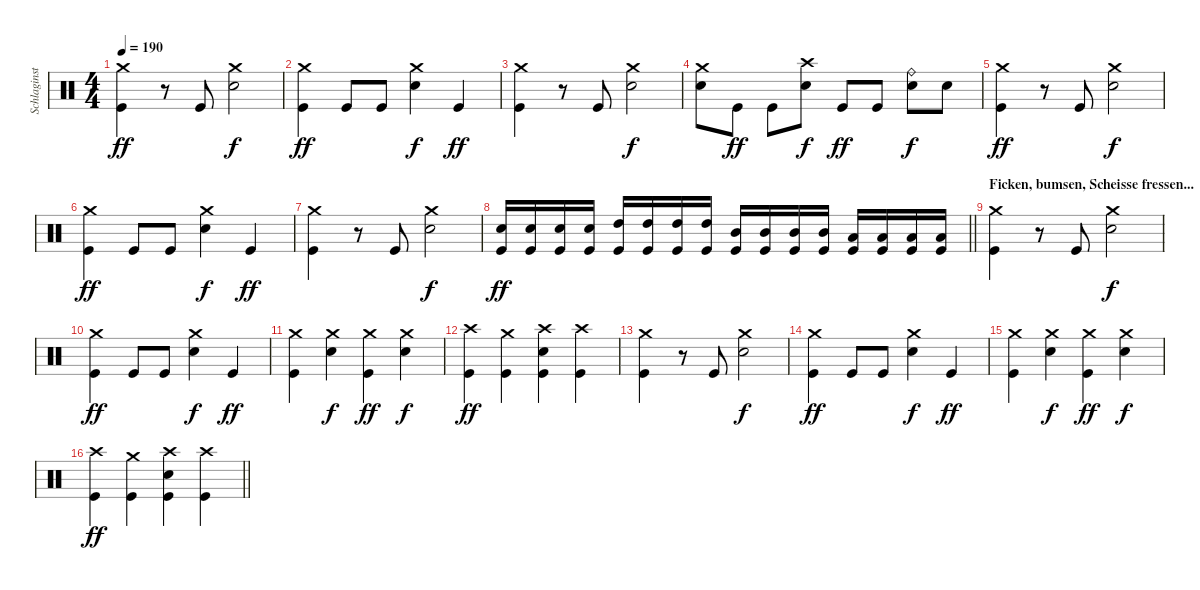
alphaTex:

\track ("Schlaginstrumente - Auswahl" "Schlaginst") {instrument percussion}
\staff {score}
\articulation defaults
\ts (4 4)
\tempo 190
\clef neutral
\ks c
("Crash medium (hit)" "Kick (hit)").4{dy ff} r.8 "Kick (hit)".8 ("Crash medium (hit)" "Electric Snare (hit)").2{dy f} |
("Crash medium (hit)" "Kick (hit)").4{dy ff} "Kick (hit)".8 "Kick (hit)".8 ("Crash medium (hit)" "Electric Snare (hit)").4{dy f} "Kick (hit)".4{dy ff} |
("Crash medium (hit)" "Kick (hit)").4 r.8 "Kick (hit)".8 ("Crash medium (hit)" "Electric Snare (hit)").2{dy f} |
("Electric Snare (hit)" "Crash medium (hit)").8 "Kick (hit)".8{dy ff} "Kick (hit)".8 ("Electric Snare (hit)" "Crash high (hit)").8{dy f} "Kick (hit)".8{dy ff} "Kick (hit)".8 ("Ride (bell)" "Electric Snare (hit)").8{dy f} "Electric Snare (hit)".8 |
("Crash medium (hit)" "Kick (hit)").4{dy ff} r.8 "Kick (hit)".8 ("Crash medium (hit)" "Electric Snare (hit)").2{dy f} |
("Crash medium (hit)" "Kick (hit)").4{dy ff} "Kick (hit)".8 "Kick (hit)".8 ("Crash medium (hit)" "Electric Snare (hit)").4{dy f} "Kick (hit)".4{dy ff} |
("Crash medium (hit)" "Kick (hit)").4 r.8 "Kick (hit)".8 ("Crash medium (hit)" "Electric Snare (hit)").2{dy f} |
\barLineRight lightlight
("Electric Snare (hit)" "Kick (hit)").16{dy ff} ("Electric Snare (hit)" "Kick (hit)").16 ("Electric Snare (hit)" "Kick (hit)").16 ("Electric Snare (hit)" "Kick (hit)").16 ("High Tom (hit)" "Kick (hit)").16 ("High Tom (hit)" "Kick (hit)").16 ("High Tom (hit)" "Kick (hit)").16 ("High Tom (hit)" "Kick (hit)").16 ("Mid Tom (hit)" "Kick (hit)").16 ("Mid Tom (hit)" "Kick (hit)").16 ("Mid Tom (hit)" "Kick (hit)").16 ("Mid Tom (hit)" "Kick (hit)").16 ("Low Tom (hit)" "Kick (hit)").16 ("Low Tom (hit)" "Kick (hit)").16 ("Low Tom (hit)" "Kick (hit)").16 ("Low Tom (hit)" "Kick (hit)").16 |
\section ("" "Ficken, bumsen, Scheisse fressen...")
("Crash medium (hit)" "Kick (hit)").4 r.8 "Kick (hit)".8 ("Crash medium (hit)" "Electric Snare (hit)").2{dy f} |
("Crash medium (hit)" "Kick (hit)").4{dy ff} "Kick (hit)".8 "Kick (hit)".8 ("Crash medium (hit)" "Electric Snare (hit)").4{dy f} "Kick (hit)".4{dy ff} |
("Crash medium (hit)" "Kick (hit)").4 ("Crash medium (hit)" "Electric Snare (hit)").4{dy f} ("Crash medium (hit)" "Kick (hit)").4{dy ff} ("Crash medium (hit)" "Electric Snare (hit)").4{dy f} |
("Crash high (hit)" "Kick (hit)").4{dy ff} ("Crash medium (hit)" "Kick (hit)").4 ("Crash high (hit)" "Electric Snare (hit)" "Kick (hit)").4 ("Crash high (hit)" "Kick (hit)").4 |
("Crash medium (hit)" "Kick (hit)").4 r.8 "Kick (hit)".8 ("Crash medium (hit)" "Electric Snare (hit)").2{dy f} |
("Crash medium (hit)" "Kick (hit)").4{dy ff} "Kick (hit)".8 "Kick (hit)".8 ("Crash medium (hit)" "Electric Snare (hit)").4{dy f} "Kick (hit)".4{dy ff} |
("Crash medium (hit)" "Kick (hit)").4 ("Crash medium (hit)" "Electric Snare (hit)").4{dy f} ("Crash medium (hit)" "Kick (hit)").4{dy ff} ("Crash medium (hit)" "Electric Snare (hit)").4{dy f} |
\barLineRight lightlight
("Crash high (hit)" "Kick (hit)").4{dy ff} ("Crash medium (hit)" "Kick (hit)").4 ("Crash high (hit)" "Electric Snare (hit)" "Kick (hit)").4 ("Crash high (hit)" "Kick (hit)").4
